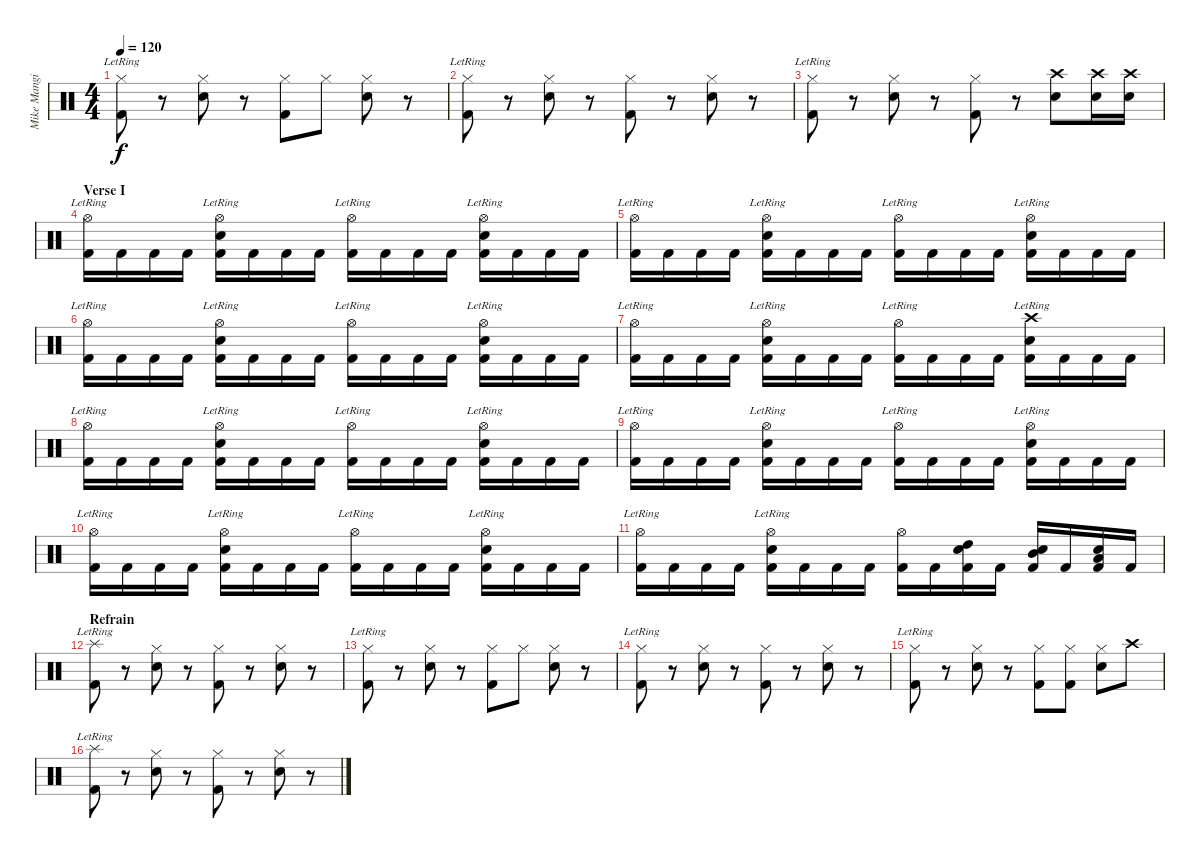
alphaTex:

\track ("Mike Mangini" "Mike Mangi") {instrument percussion}
\staff {score}
\articulation defaults
\ts (4 4)
\tempo 120
\clef neutral
\ks c
("Hi-Hat (closed)" "Kick (hit) 2"{lr}).8{dy f} r.8 ("Hi-Hat (closed)" "Snare (hit) 2").8 r.8 ("Hi-Hat (closed)" "Kick (hit) 2").8 "Hi-Hat (closed)".8 ("Hi-Hat (closed)" "Snare (hit) 2").8 r.8 |
("Hi-Hat (closed)" "Kick (hit) 2"{lr}).8 r.8 ("Hi-Hat (closed)" "Snare (hit) 2").8 r.8 ("Hi-Hat (closed)" "Kick (hit) 2").8 r.8 ("Hi-Hat (closed)" "Snare (hit) 2").8 r.8 |
("Hi-Hat (closed)" "Kick (hit) 2"{lr}).8 r.8 ("Hi-Hat (closed)" "Snare (hit) 2").8 r.8 ("Hi-Hat (closed)" "Kick (hit) 2").8 r.8 ("Crash high (hit)" "Snare (hit) 2").8 ("Crash high (hit)" "Snare (hit) 2").16 ("Crash high (hit)" "Snare (hit) 2").16 |
\section ("" "Verse I")
("Hi-Hat (open)"{lr} "Kick (hit) 2"{lr}).16 "Kick (hit) 2".16 "Kick (hit) 2".16 "Kick (hit) 2".16 ("Hi-Hat (open)"{lr} "Snare (hit) 2"{lr} "Kick (hit) 2").16 "Kick (hit) 2".16 "Kick (hit) 2".16 "Kick (hit) 2".16 ("Hi-Hat (open)"{lr} "Kick (hit) 2").16 "Kick (hit) 2".16 "Kick (hit) 2".16 "Kick (hit) 2".16 ("Hi-Hat (open)"{lr} "Snare (hit) 2"{lr} "Kick (hit) 2").16 "Kick (hit) 2".16 "Kick (hit) 2".16 "Kick (hit) 2".16 |
("Hi-Hat (open)"{lr} "Kick (hit) 2"{lr}).16 "Kick (hit) 2".16 "Kick (hit) 2".16 "Kick (hit) 2".16 ("Hi-Hat (open)"{lr} "Snare (hit) 2"{lr} "Kick (hit) 2").16 "Kick (hit) 2".16 "Kick (hit) 2".16 "Kick (hit) 2".16 ("Hi-Hat (open)"{lr} "Kick (hit) 2").16 "Kick (hit) 2".16 "Kick (hit) 2".16 "Kick (hit) 2".16 ("Hi-Hat (open)"{lr} "Snare (hit) 2"{lr} "Kick (hit) 2").16 "Kick (hit) 2".16 "Kick (hit) 2".16 "Kick (hit) 2".16 |
("Hi-Hat (open)"{lr} "Kick (hit) 2"{lr}).16 "Kick (hit) 2".16 "Kick (hit) 2".16 "Kick (hit) 2".16 ("Hi-Hat (open)"{lr} "Snare (hit) 2"{lr} "Kick (hit) 2").16 "Kick (hit) 2".16 "Kick (hit) 2".16 "Kick (hit) 2".16 ("Hi-Hat (open)"{lr} "Kick (hit) 2").16 "Kick (hit) 2".16 "Kick (hit) 2".16 "Kick (hit) 2".16 ("Hi-Hat (open)"{lr} "Snare (hit) 2"{lr} "Kick (hit) 2").16 "Kick (hit) 2".16 "Kick (hit) 2".16 "Kick (hit) 2".16 |
("Hi-Hat (open)"{lr} "Kick (hit) 2"{lr}).16 "Kick (hit) 2".16 "Kick (hit) 2".16 "Kick (hit) 2".16 ("Hi-Hat (open)"{lr} "Snare (hit) 2"{lr} "Kick (hit) 2").16 "Kick (hit) 2".16 "Kick (hit) 2".16 "Kick (hit) 2".16 ("Hi-Hat (open)"{lr} "Kick (hit) 2").16 "Kick (hit) 2".16 "Kick (hit) 2".16 "Kick (hit) 2".16 ("Crash high (hit)"{lr} "Snare (hit) 2"{lr} "Kick (hit) 2").16 "Kick (hit) 2".16 "Kick (hit) 2".16 "Kick (hit) 2".16 |
("Hi-Hat (open)"{lr} "Kick (hit) 2"{lr}).16 "Kick (hit) 2".16 "Kick (hit) 2".16 "Kick (hit) 2".16 ("Hi-Hat (open)"{lr} "Snare (hit) 2"{lr} "Kick (hit) 2").16 "Kick (hit) 2".16 "Kick (hit) 2".16 "Kick (hit) 2".16 ("Hi-Hat (open)"{lr} "Kick (hit) 2").16 "Kick (hit) 2".16 "Kick (hit) 2".16 "Kick (hit) 2".16 ("Hi-Hat (open)"{lr} "Snare (hit) 2"{lr} "Kick (hit) 2").16 "Kick (hit) 2".16 "Kick (hit) 2".16 "Kick (hit) 2".16 |
("Hi-Hat (open)"{lr} "Kick (hit) 2"{lr}).16 "Kick (hit) 2".16 "Kick (hit) 2".16 "Kick (hit) 2".16 ("Hi-Hat (open)"{lr} "Snare (hit) 2"{lr} "Kick (hit) 2").16 "Kick (hit) 2".16 "Kick (hit) 2".16 "Kick (hit) 2".16 ("Hi-Hat (open)"{lr} "Kick (hit) 2").16 "Kick (hit) 2".16 "Kick (hit) 2".16 "Kick (hit) 2".16 ("Hi-Hat (open)"{lr} "Snare (hit) 2"{lr} "Kick (hit) 2").16 "Kick (hit) 2".16 "Kick (hit) 2".16 "Kick (hit) 2".16 |
("Hi-Hat (open)"{lr} "Kick (hit) 2"{lr}).16 "Kick (hit) 2".16 "Kick (hit) 2".16 "Kick (hit) 2".16 ("Hi-Hat (open)"{lr} "Snare (hit) 2"{lr} "Kick (hit) 2").16 "Kick (hit) 2".16 "Kick (hit) 2".16 "Kick (hit) 2".16 ("Hi-Hat (open)"{lr} "Kick (hit) 2").16 "Kick (hit) 2".16 "Kick (hit) 2".16 "Kick (hit) 2".16 ("Hi-Hat (open)"{lr} "Snare (hit) 2"{lr} "Kick (hit) 2").16 "Kick (hit) 2".16 "Kick (hit) 2".16 "Kick (hit) 2".16 |
("Hi-Hat (open)"{lr} "Kick (hit) 2"{lr}).16 "Kick (hit) 2".16 "Kick (hit) 2".16 "Kick (hit) 2".16 ("Hi-Hat (open)"{lr} "Snare (hit) 2"{lr} "Kick (hit) 2").16 "Kick (hit) 2".16 "Kick (hit) 2".16 "Kick (hit) 2".16 ("Hi-Hat (open)" "Kick (hit) 2").16 "Kick (hit) 2".16 ("High Tom (hit)" "Snare (hit) 2" "Kick (hit) 2").16 "Kick (hit) 2".16 ("Mid Tom (hit)" "Snare (hit) 2" "Kick (hit) 2").16 "Kick (hit) 2".16 ("Low Tom (hit)" "Snare (hit) 2" "Kick (hit) 2").16 "Kick (hit) 2".16 |
\section ("" "Refrain")
("Splash (hit)" "Kick (hit) 2"{lr}).8 r.8 ("Hi-Hat (closed)" "Snare (hit) 2").8 r.8 ("Hi-Hat (closed)" "Kick (hit) 2").8 r.8 ("Hi-Hat (closed)" "Snare (hit) 2").8 r.8 |
("Hi-Hat (closed)" "Kick (hit) 2"{lr}).8 r.8 ("Hi-Hat (closed)" "Snare (hit) 2").8 r.8 ("Hi-Hat (closed)" "Kick (hit) 2").8 "Hi-Hat (closed)".8 ("Hi-Hat (closed)" "Snare (hit) 2").8 r.8 |
("Hi-Hat (closed)" "Kick (hit) 2"{lr}).8 r.8 ("Hi-Hat (closed)" "Snare (hit) 2").8 r.8 ("Hi-Hat (closed)" "Kick (hit) 2").8 r.8 ("Hi-Hat (closed)" "Snare (hit) 2").8 r.8 |
("Hi-Hat (closed)" "Kick (hit) 2"{lr}).8 r.8 ("Hi-Hat (closed)" "Snare (hit) 2").8 r.8 ("Hi-Hat (closed)" "Kick (hit) 2").8 ("Hi-Hat (closed)" "Kick (hit) 2").8 ("Hi-Hat (closed)" "Snare (hit) 2").8 "Crash high (hit)".8 |
("Splash (hit)" "Kick (hit) 2"{lr}).8 r.8 ("Hi-Hat (closed)" "Snare (hit) 2").8 r.8 ("Hi-Hat (closed)" "Kick (hit) 2").8 r.8 ("Hi-Hat (closed)" "Snare (hit) 2").8 r.8
